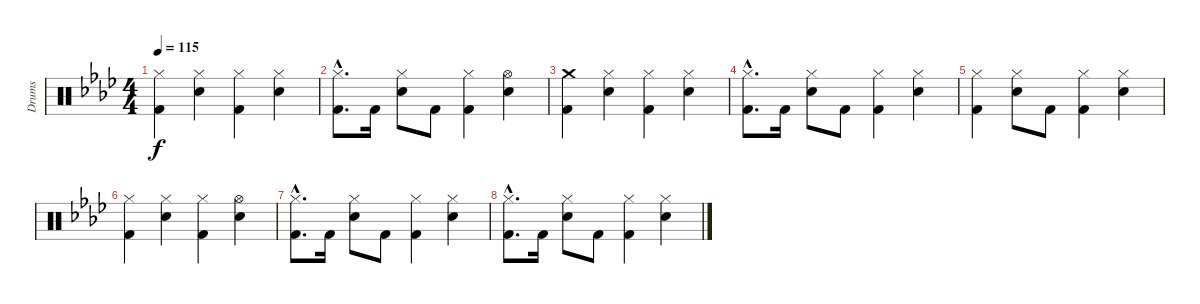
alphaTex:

\track ("Drums" "Drums") {instrument percussion}
\staff {score}
\articulation defaults
\ts (4 4)
\tempo 115
\clef neutral
\ks ab
("Hi-Hat (closed)" "Kick (hit) 2").4{dy f} ("Hi-Hat (closed)" "Snare (hit) 2").4 ("Hi-Hat (closed)" "Kick (hit) 2").4 ("Hi-Hat (closed)" "Snare (hit) 2").4 |
("Hi-Hat (closed)"{hac} "Kick (hit) 2"{hac}).8{d} "Kick (hit) 2".16 ("Hi-Hat (closed)" "Snare (hit) 2").8 "Kick (hit) 2".8 ("Hi-Hat (closed)" "Kick (hit) 2").4 ("Hi-Hat (open)" "Snare (hit) 2").4 |
("Crash medium (hit)" "Kick (hit) 2").4 ("Hi-Hat (closed)" "Snare (hit) 2").4 ("Hi-Hat (closed)" "Kick (hit) 2").4 ("Hi-Hat (closed)" "Snare (hit) 2").4 |
("Hi-Hat (closed)"{hac} "Kick (hit) 2"{hac}).8{d} "Kick (hit) 2".16 ("Hi-Hat (closed)" "Snare (hit) 2").8 "Kick (hit) 2".8 ("Hi-Hat (closed)" "Kick (hit) 2").4 ("Hi-Hat (closed)" "Snare (hit) 2").4 |
("Hi-Hat (closed)" "Kick (hit) 2").4 ("Hi-Hat (closed)" "Snare (hit) 2").8 "Kick (hit) 2".8 ("Hi-Hat (closed)" "Kick (hit) 2").4 ("Hi-Hat (closed)" "Snare (hit) 2").4 |
("Hi-Hat (closed)" "Kick (hit) 2").4 ("Hi-Hat (closed)" "Snare (hit) 2").4 ("Hi-Hat (closed)" "Kick (hit) 2").4 ("Hi-Hat (open)" "Snare (hit) 2").4 |
("Hi-Hat (closed)"{hac} "Kick (hit) 2"{hac}).8{d} "Kick (hit) 2".16 ("Hi-Hat (closed)" "Snare (hit) 2").8 "Kick (hit) 2".8 ("Hi-Hat (closed)" "Kick (hit) 2").4 ("Hi-Hat (closed)" "Snare (hit) 2").4 |
("Hi-Hat (closed)"{hac} "Kick (hit) 2"{hac}).8{d} "Kick (hit) 2".16 ("Hi-Hat (closed)" "Snare (hit) 2").8 "Kick (hit) 2".8 ("Hi-Hat (closed)" "Kick (hit) 2").4 ("Hi-Hat (closed)" "Snare (hit) 2").4
